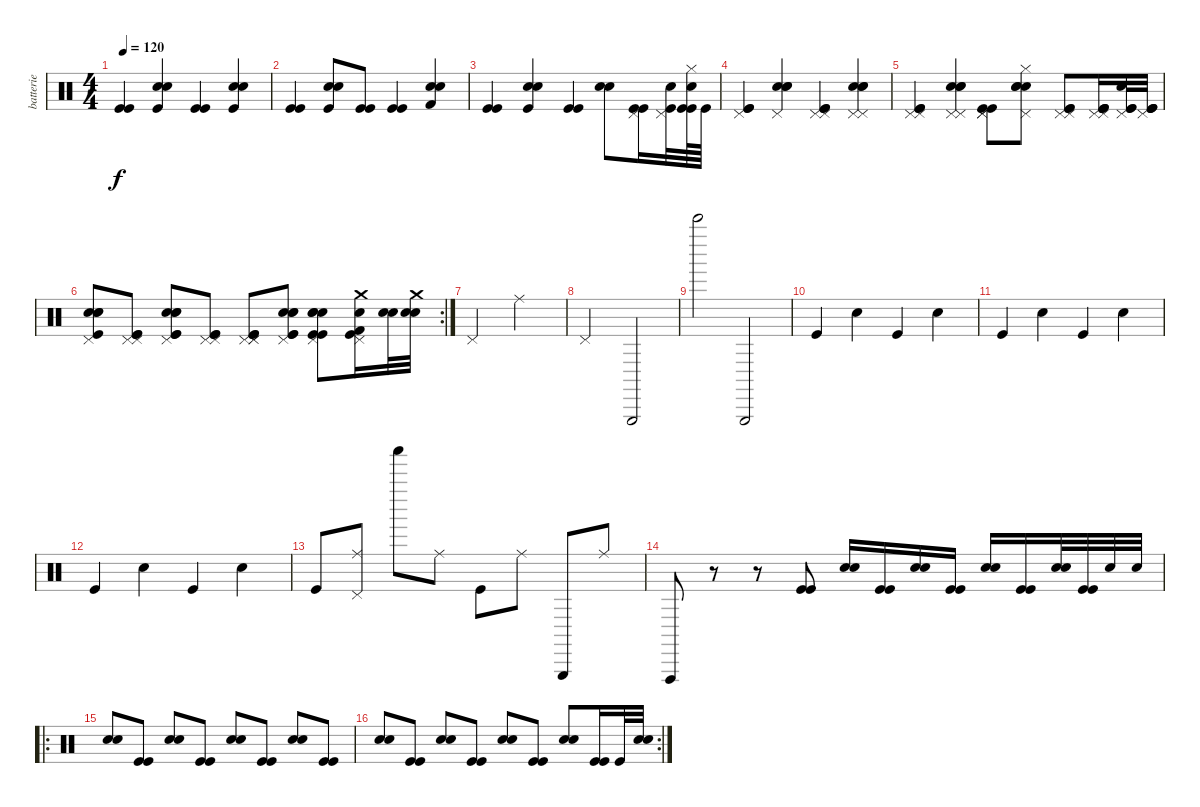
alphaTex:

\track ("batterie" "batterie") {instrument percussion}
\staff {score}
\articulation defaults
\ts (4 4)
\tempo 120
\clef neutral
\ks c
("Kick (hit)" "Kick (hit)").4{dy f} ("Electric Snare (hit)" "Electric Snare (hit)" "Kick (hit)").4 ("Kick (hit)" "Kick (hit)").4 ("Electric Snare (hit)" "Electric Snare (hit)" "Kick (hit)").4 |
("Kick (hit)" "Kick (hit)").4 ("Electric Snare (hit)" "Electric Snare (hit)" "Kick (hit)").8 ("Kick (hit)" "Kick (hit)").8 ("Kick (hit)" "Kick (hit)").4 ("Electric Snare (hit)" "Electric Snare (hit)" "Kick (hit) 2").4 |
("Kick (hit)" "Kick (hit)").4 ("Electric Snare (hit)" "Electric Snare (hit)" "Kick (hit)").4 ("Kick (hit)" "Kick (hit)").4 ("Electric Snare (hit)" "Electric Snare (hit)").8 ("Kick (hit)" "Pedal Hi-Hat (hit)" "Kick (hit)").16 ("Kick (hit)" "Pedal Hi-Hat (hit)" "Electric Snare (hit)").32 ("Hi-Hat (closed)" "Electric Snare (hit)" "Kick (hit)" "Kick (hit)").64 "Kick (hit)".64 |
("Kick (hit)" "Pedal Hi-Hat (hit)" "Kick (hit)").4 ("Electric Snare (hit)" "Pedal Hi-Hat (hit)" "Electric Snare (hit)" "Electric Snare (hit)").4 ("Kick (hit)" "Pedal Hi-Hat (hit)" "Kick (hit)" "Pedal Hi-Hat (hit)").4 ("Electric Snare (hit)" "Pedal Hi-Hat (hit)" "Electric Snare (hit)" "Pedal Hi-Hat (hit)" "Electric Snare (hit)").4 |
("Kick (hit)" "Pedal Hi-Hat (hit)" "Kick (hit)" "Pedal Hi-Hat (hit)").4 ("Electric Snare (hit)" "Pedal Hi-Hat (hit)" "Electric Snare (hit)" "Pedal Hi-Hat (hit)" "Electric Snare (hit)").4 ("Kick (hit)" "Pedal Hi-Hat (hit)" "Kick (hit)" "Pedal Hi-Hat (hit)").8 ("Electric Snare (hit)" "Pedal Hi-Hat (hit)" "Electric Snare (hit)" "Hi-Hat (closed)" "Electric Snare (hit)").8 ("Kick (hit)" "Pedal Hi-Hat (hit)" "Kick (hit)" "Pedal Hi-Hat (hit)").8 ("Kick (hit)" "Pedal Hi-Hat (hit)" "Kick (hit)" "Pedal Hi-Hat (hit)" "Kick (hit)").16 ("Kick (hit)" "Kick (hit)" "Pedal Hi-Hat (hit)" "Electric Snare (hit)").32 ("Kick (hit)" "Kick (hit)" "Pedal Hi-Hat (hit)" "Kick (hit)").32 |
\rc 2
("Kick (hit)" "Pedal Hi-Hat (hit)" "Electric Snare (hit)" "Electric Snare (hit)" "Electric Snare (hit)").8 ("Kick (hit)" "Pedal Hi-Hat (hit)" "Kick (hit)" "Pedal Hi-Hat (hit)").8 ("Kick (hit)" "Pedal Hi-Hat (hit)" "Kick (hit)" "Electric Snare (hit)" "Electric Snare (hit)" "Electric Snare (hit)").8 ("Kick (hit)" "Pedal Hi-Hat (hit)" "Kick (hit)" "Pedal Hi-Hat (hit)").8 ("Kick (hit)" "Pedal Hi-Hat (hit)" "Kick (hit)" "Pedal Hi-Hat (hit)" "Pedal Hi-Hat (hit)").8 ("Kick (hit)" "Pedal Hi-Hat (hit)" "Kick (hit)" "Electric Snare (hit)" "Electric Snare (hit)" "Electric Snare (hit)").8 ("Kick (hit)" "Pedal Hi-Hat (hit)" "Kick (hit)" "Electric Snare (hit)" "Electric Snare (hit)" "Electric Snare (hit)").8 ("Kick (hit)" "Pedal Hi-Hat (hit)" "Crash medium (hit)" "Kick (hit) 2" "Electric Snare (hit)").16 ("Electric Snare (hit)" "Electric Snare (hit)").32 ("Crash medium (hit)" "Electric Snare (hit)" "Electric Snare (hit)").32 |
"Pedal Hi-Hat (hit)".2 "Ride (middle)".2 |
"Pedal Hi-Hat (hit)".2 "Triangle (hit)".2 |
"Bell Tree (hit)".2 "Triangle (hit)".2 |
"Kick (hit)".4 "Hand Clap (hit)".4 "Kick (hit)".4 "Hand Clap (hit)".4 |
"Kick (hit)".4 "Hand Clap (hit)".4 "Kick (hit)".4 "Hand Clap (hit)".4 |
"Kick (hit)".4 "Hand Clap (hit)".4 "Kick (hit)".4 "Hand Clap (hit)".4 |
"Kick (hit)".8 ("Ride (middle)" "Pedal Hi-Hat (hit)").8 "Shaker (hit)".8 "Ride (middle)".8 "Kick (hit)".8 "Ride (middle)".8 "Triangle (hit)".8 "Ride (middle)".8 |
"Vibraslap (hit)".8 r.8 r.8 ("Kick (hit)" "Kick (hit)").8 ("Electric Snare (hit)" "Electric Snare (hit)").16 ("Kick (hit)" "Kick (hit)").16 ("Electric Snare (hit)" "Electric Snare (hit)").16 ("Kick (hit)" "Kick (hit)").16 ("Electric Snare (hit)" "Electric Snare (hit)").16 ("Kick (hit)" "Kick (hit)").16 ("Electric Snare (hit)" "Electric Snare (hit)").32 ("Kick (hit)" "Kick (hit)").32 "Electric Snare (hit)".32 "Electric Snare (hit)".32 |
\ro
("Electric Snare (hit)" "Electric Snare (hit)").8{volume 16} ("Kick (hit)" "Kick (hit)").8 ("Electric Snare (hit)" "Electric Snare (hit)").8 ("Kick (hit)" "Kick (hit)").8 ("Electric Snare (hit)" "Electric Snare (hit)").8 ("Kick (hit)" "Kick (hit)").8 ("Electric Snare (hit)" "Electric Snare (hit)").8 ("Kick (hit)" "Kick (hit)").8 |
\rc 2
("Electric Snare (hit)" "Electric Snare (hit)").8 ("Kick (hit)" "Kick (hit)").8 ("Electric Snare (hit)" "Electric Snare (hit)").8 ("Kick (hit)" "Kick (hit)").8 ("Electric Snare (hit)" "Electric Snare (hit)").8 ("Kick (hit)" "Kick (hit)").8 ("Electric Snare (hit)" "Electric Snare (hit)").8 ("Kick (hit)" "Kick (hit)").16 "Kick (hit)".32 ("Electric Snare (hit)" "Electric Snare (hit)").32
